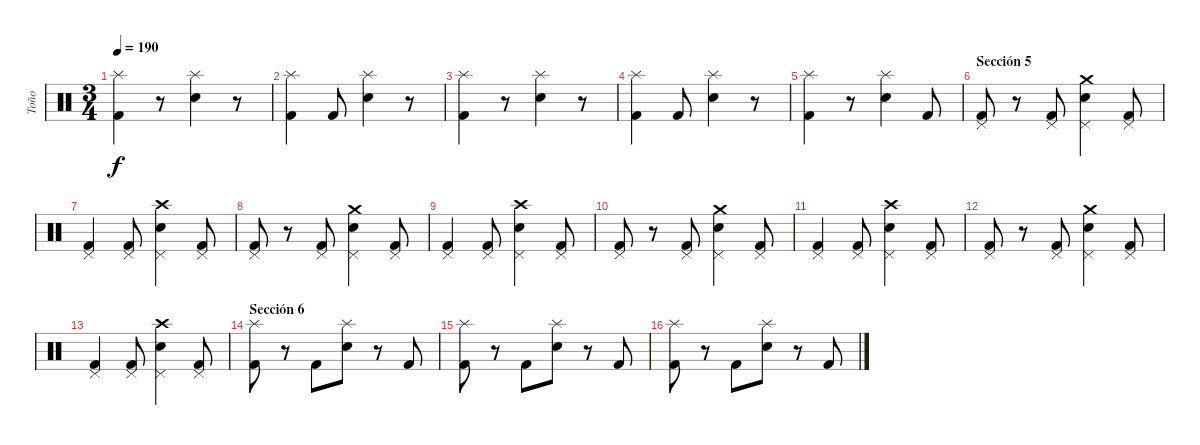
\track ("Toño" "Toño") {instrument percussion}
\staff {score}
\articulation defaults
\ts (3 4)
\tempo 190
\clef neutral
\ks c
("Splash (hit)" "Kick (hit) 2").4{dy f} r.8 ("Splash (hit)" "Electric Snare (hit)").4 r.8 |
("Splash (hit)" "Kick (hit) 2").4 "Kick (hit) 2".8 ("Splash (hit)" "Electric Snare (hit)").4 r.8 |
("Splash (hit)" "Kick (hit) 2").4 r.8 ("Splash (hit)" "Electric Snare (hit)").4 r.8 |
("Splash (hit)" "Kick (hit) 2").4 "Kick (hit) 2".8 ("Splash (hit)" "Electric Snare (hit)").4 r.8 |
("Splash (hit)" "Kick (hit) 2").4 r.8 ("Splash (hit)" "Electric Snare (hit)").4 "Kick (hit) 2".8 |
\section ("" "Sección 5")
("Pedal Hi-Hat (hit)" "Kick (hit) 2").8 r.8 ("Pedal Hi-Hat (hit)" "Kick (hit) 2").8 ("Pedal Hi-Hat (hit)" "Crash medium (hit)" "Electric Snare (hit)").4 ("Pedal Hi-Hat (hit)" "Kick (hit) 2").8 |
("Pedal Hi-Hat (hit)" "Kick (hit) 2").4 ("Pedal Hi-Hat (hit)" "Kick (hit) 2").8 ("Pedal Hi-Hat (hit)" "Crash high (hit)" "Electric Snare (hit)").4 ("Pedal Hi-Hat (hit)" "Kick (hit) 2").8 |
("Pedal Hi-Hat (hit)" "Kick (hit) 2").8 r.8 ("Pedal Hi-Hat (hit)" "Kick (hit) 2").8 ("Pedal Hi-Hat (hit)" "Crash medium (hit)" "Electric Snare (hit)").4 ("Pedal Hi-Hat (hit)" "Kick (hit) 2").8 |
("Pedal Hi-Hat (hit)" "Kick (hit) 2").4 ("Pedal Hi-Hat (hit)" "Kick (hit) 2").8 ("Pedal Hi-Hat (hit)" "Crash high (hit)" "Electric Snare (hit)").4 ("Pedal Hi-Hat (hit)" "Kick (hit) 2").8 |
("Pedal Hi-Hat (hit)" "Kick (hit) 2").8 r.8 ("Pedal Hi-Hat (hit)" "Kick (hit) 2").8 ("Pedal Hi-Hat (hit)" "Crash medium (hit)" "Electric Snare (hit)").4 ("Pedal Hi-Hat (hit)" "Kick (hit) 2").8 |
("Pedal Hi-Hat (hit)" "Kick (hit) 2").4 ("Pedal Hi-Hat (hit)" "Kick (hit) 2").8 ("Pedal Hi-Hat (hit)" "Crash high (hit)" "Electric Snare (hit)").4 ("Pedal Hi-Hat (hit)" "Kick (hit) 2").8 |
("Pedal Hi-Hat (hit)" "Kick (hit) 2").8 r.8 ("Pedal Hi-Hat (hit)" "Kick (hit) 2").8 ("Pedal Hi-Hat (hit)" "Crash medium (hit)" "Electric Snare (hit)").4 ("Pedal Hi-Hat (hit)" "Kick (hit) 2").8 |
("Pedal Hi-Hat (hit)" "Kick (hit) 2").4 ("Pedal Hi-Hat (hit)" "Kick (hit) 2").8 ("Pedal Hi-Hat (hit)" "Crash high (hit)" "Electric Snare (hit)").4 ("Pedal Hi-Hat (hit)" "Kick (hit) 2").8 |
\section ("" "Sección 6")
("Splash (hit)" "Kick (hit) 2").8 r.8 "Kick (hit) 2".8 ("Splash (hit)" "Electric Snare (hit)").8 r.8 "Kick (hit) 2".8 |
("Splash (hit)" "Kick (hit) 2").8 r.8 "Kick (hit) 2".8 ("Splash (hit)" "Electric Snare (hit)").8 r.8 "Kick (hit) 2".8 |
("Splash (hit)" "Kick (hit) 2").8 r.8 "Kick (hit) 2".8 ("Splash (hit)" "Electric Snare (hit)").8 r.8 "Kick (hit) 2".8
